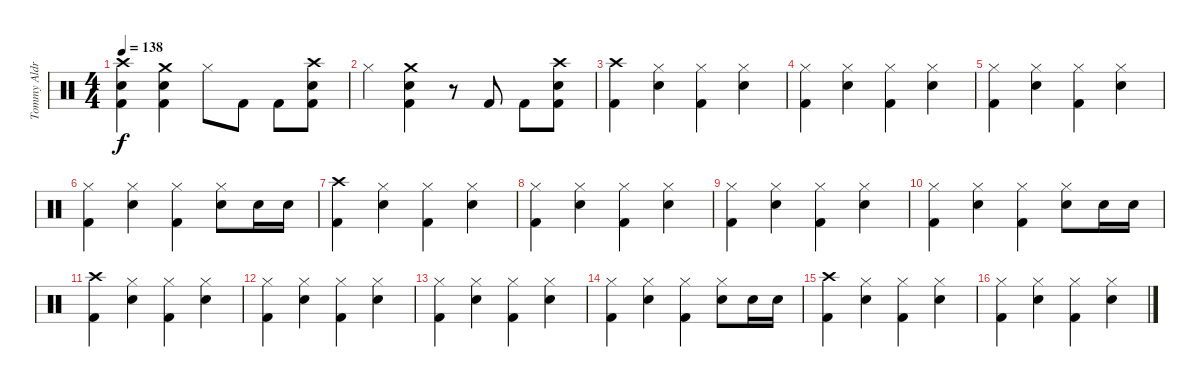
\track ("Tommy Aldridge" "Tommy Aldr") {instrument percussion}
\staff {score}
\articulation defaults
\ts (4 4)
\tempo 138
\clef neutral
\ks c
("Crash high (hit)" "Snare (hit) 2" "Kick (hit) 2").4{dy f} ("Crash medium (hit)" "Snare (hit) 2" "Kick (hit) 2").4 "Hi-Hat (closed)".8 "Kick (hit) 2".8 "Kick (hit) 2".8 ("Crash high (hit)" "Snare (hit) 2" "Kick (hit) 2").8 |
"Hi-Hat (closed)".4 ("Crash medium (hit)" "Snare (hit) 2" "Kick (hit) 2").4 r.8 "Kick (hit) 2".8 "Kick (hit) 2".8 ("Crash high (hit)" "Snare (hit) 2" "Kick (hit) 2").8 |
("Crash high (hit)" "Kick (hit) 2").4 ("Snare (hit) 2" "Hi-Hat (closed)").4 ("Hi-Hat (closed)" "Kick (hit) 2").4 ("Snare (hit) 2" "Hi-Hat (closed)").4 |
("Hi-Hat (closed)" "Kick (hit) 2").4 ("Snare (hit) 2" "Hi-Hat (closed)").4 ("Hi-Hat (closed)" "Kick (hit) 2").4 ("Snare (hit) 2" "Hi-Hat (closed)").4 |
("Hi-Hat (closed)" "Kick (hit) 2").4 ("Snare (hit) 2" "Hi-Hat (closed)").4 ("Hi-Hat (closed)" "Kick (hit) 2").4 ("Snare (hit) 2" "Hi-Hat (closed)").4 |
("Hi-Hat (closed)" "Kick (hit) 2").4 ("Snare (hit) 2" "Hi-Hat (closed)").4 ("Hi-Hat (closed)" "Kick (hit) 2").4 ("Snare (hit) 2" "Hi-Hat (closed)").8 "Snare (hit) 2".16 "Snare (hit) 2".16 |
("Crash high (hit)" "Kick (hit) 2").4 ("Snare (hit) 2" "Hi-Hat (closed)").4 ("Hi-Hat (closed)" "Kick (hit) 2").4 ("Snare (hit) 2" "Hi-Hat (closed)").4 |
("Hi-Hat (closed)" "Kick (hit) 2").4 ("Snare (hit) 2" "Hi-Hat (closed)").4 ("Hi-Hat (closed)" "Kick (hit) 2").4 ("Snare (hit) 2" "Hi-Hat (closed)").4 |
("Hi-Hat (closed)" "Kick (hit) 2").4 ("Snare (hit) 2" "Hi-Hat (closed)").4 ("Hi-Hat (closed)" "Kick (hit) 2").4 ("Snare (hit) 2" "Hi-Hat (closed)").4 |
("Hi-Hat (closed)" "Kick (hit) 2").4 ("Snare (hit) 2" "Hi-Hat (closed)").4 ("Hi-Hat (closed)" "Kick (hit) 2").4 ("Snare (hit) 2" "Hi-Hat (closed)").8 "Snare (hit) 2".16 "Snare (hit) 2".16 |
("Crash high (hit)" "Kick (hit) 2").4 ("Snare (hit) 2" "Hi-Hat (closed)").4 ("Hi-Hat (closed)" "Kick (hit) 2").4 ("Snare (hit) 2" "Hi-Hat (closed)").4 |
("Hi-Hat (closed)" "Kick (hit) 2").4 ("Snare (hit) 2" "Hi-Hat (closed)").4 ("Hi-Hat (closed)" "Kick (hit) 2").4 ("Snare (hit) 2" "Hi-Hat (closed)").4 |
("Hi-Hat (closed)" "Kick (hit) 2").4 ("Snare (hit) 2" "Hi-Hat (closed)").4 ("Hi-Hat (closed)" "Kick (hit) 2").4 ("Snare (hit) 2" "Hi-Hat (closed)").4 |
("Hi-Hat (closed)" "Kick (hit) 2").4 ("Snare (hit) 2" "Hi-Hat (closed)").4 ("Hi-Hat (closed)" "Kick (hit) 2").4 ("Snare (hit) 2" "Hi-Hat (closed)").8 "Snare (hit) 2".16 "Snare (hit) 2".16 |
("Crash high (hit)" "Kick (hit) 2").4 ("Snare (hit) 2" "Hi-Hat (closed)").4 ("Hi-Hat (closed)" "Kick (hit) 2").4 ("Snare (hit) 2" "Hi-Hat (closed)").4 |
("Hi-Hat (closed)" "Kick (hit) 2").4 ("Snare (hit) 2" "Hi-Hat (closed)").4 ("Hi-Hat (closed)" "Kick (hit) 2").4 ("Snare (hit) 2" "Hi-Hat (closed)").4
